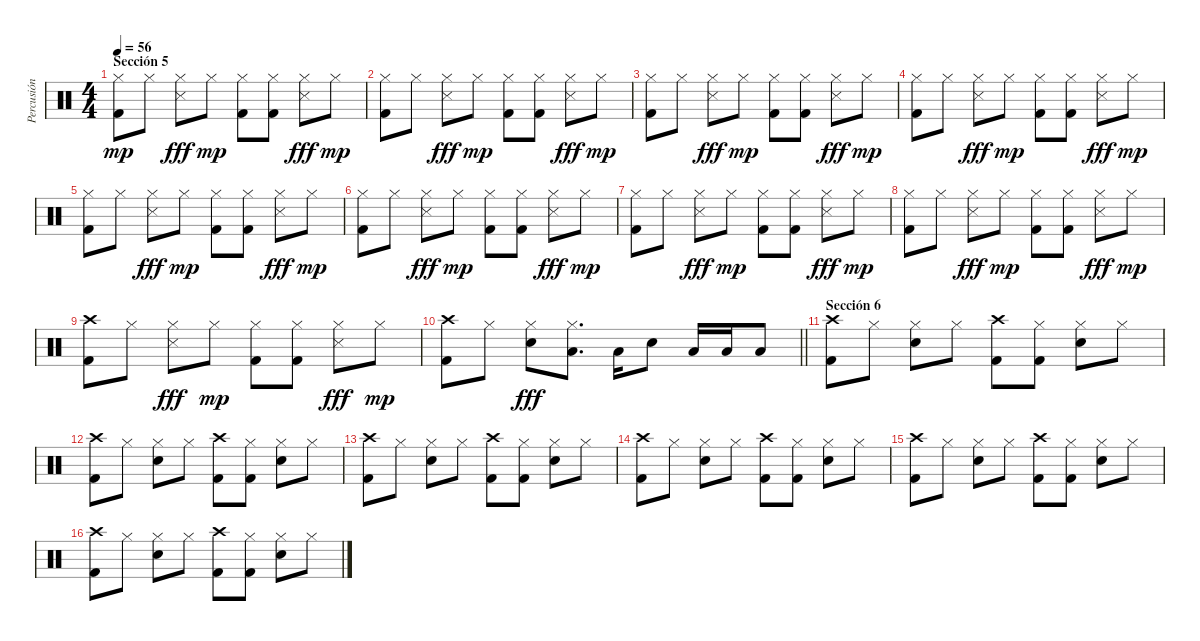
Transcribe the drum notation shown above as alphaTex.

\track ("Percusión" "Percusión") {instrument percussion}
\staff {score}
\articulation defaults
\ts (4 4)
\section ("" "Sección 5")
\tempo 56
\clef neutral
\ks c
("Hi-Hat (closed)" "Kick (hit) 2").8{dy mp} "Hi-Hat (closed)".8 ("Hi-Hat (closed)" "Metronome (hit)").8{dy fff} "Hi-Hat (closed)".8{dy mp} ("Hi-Hat (closed)" "Kick (hit) 2").8 ("Hi-Hat (closed)" "Kick (hit) 2").8 ("Hi-Hat (closed)" "Metronome (hit)").8{dy fff} "Hi-Hat (closed)".8{dy mp} |
("Hi-Hat (closed)" "Kick (hit) 2").8 "Hi-Hat (closed)".8 ("Hi-Hat (closed)" "Metronome (hit)").8{dy fff} "Hi-Hat (closed)".8{dy mp} ("Hi-Hat (closed)" "Kick (hit) 2").8 ("Hi-Hat (closed)" "Kick (hit) 2").8 ("Hi-Hat (closed)" "Metronome (hit)").8{dy fff} "Hi-Hat (closed)".8{dy mp} |
("Hi-Hat (closed)" "Kick (hit) 2").8 "Hi-Hat (closed)".8 ("Hi-Hat (closed)" "Metronome (hit)").8{dy fff} "Hi-Hat (closed)".8{dy mp} ("Hi-Hat (closed)" "Kick (hit) 2").8 ("Hi-Hat (closed)" "Kick (hit) 2").8 ("Hi-Hat (closed)" "Metronome (hit)").8{dy fff} "Hi-Hat (closed)".8{dy mp} |
("Hi-Hat (closed)" "Kick (hit) 2").8 "Hi-Hat (closed)".8 ("Hi-Hat (closed)" "Metronome (hit)").8{dy fff} "Hi-Hat (closed)".8{dy mp} ("Hi-Hat (closed)" "Kick (hit) 2").8 ("Hi-Hat (closed)" "Kick (hit) 2").8 ("Hi-Hat (closed)" "Metronome (hit)").8{dy fff} "Hi-Hat (closed)".8{dy mp} |
("Hi-Hat (closed)" "Kick (hit) 2").8 "Hi-Hat (closed)".8 ("Hi-Hat (closed)" "Metronome (hit)").8{dy fff} "Hi-Hat (closed)".8{dy mp} ("Hi-Hat (closed)" "Kick (hit) 2").8 ("Hi-Hat (closed)" "Kick (hit) 2").8 ("Hi-Hat (closed)" "Metronome (hit)").8{dy fff} "Hi-Hat (closed)".8{dy mp} |
("Hi-Hat (closed)" "Kick (hit) 2").8 "Hi-Hat (closed)".8 ("Hi-Hat (closed)" "Metronome (hit)").8{dy fff} "Hi-Hat (closed)".8{dy mp} ("Hi-Hat (closed)" "Kick (hit) 2").8 ("Hi-Hat (closed)" "Kick (hit) 2").8 ("Hi-Hat (closed)" "Metronome (hit)").8{dy fff} "Hi-Hat (closed)".8{dy mp} |
("Hi-Hat (closed)" "Kick (hit) 2").8 "Hi-Hat (closed)".8 ("Hi-Hat (closed)" "Metronome (hit)").8{dy fff} "Hi-Hat (closed)".8{dy mp} ("Hi-Hat (closed)" "Kick (hit) 2").8 ("Hi-Hat (closed)" "Kick (hit) 2").8 ("Hi-Hat (closed)" "Metronome (hit)").8{dy fff} "Hi-Hat (closed)".8{dy mp} |
("Hi-Hat (closed)" "Kick (hit) 2").8 "Hi-Hat (closed)".8 ("Hi-Hat (closed)" "Metronome (hit)").8{dy fff} "Hi-Hat (closed)".8{dy mp} ("Hi-Hat (closed)" "Kick (hit) 2").8 ("Hi-Hat (closed)" "Kick (hit) 2").8 ("Hi-Hat (closed)" "Metronome (hit)").8{dy fff} "Hi-Hat (closed)".8{dy mp} |
("Crash high (hit)" "Kick (hit) 2").8 "Hi-Hat (closed)".8 ("Hi-Hat (closed)" "Metronome (hit)").8{dy fff} "Hi-Hat (closed)".8{dy mp} ("Hi-Hat (closed)" "Kick (hit) 2").8 ("Hi-Hat (closed)" "Kick (hit) 2").8 ("Hi-Hat (closed)" "Metronome (hit)").8{dy fff} "Hi-Hat (closed)".8{dy mp} |
\barLineRight lightlight
("Crash high (hit)" "Kick (hit) 2").8 "Hi-Hat (closed)".8 ("Hi-Hat (closed)" "Snare (hit) 2").8{dy fff} ("Hi-Hat (closed)" "Low Tom (hit)").8{d} "Low Tom (hit)".16 "Snare (hit) 2".8 "Low Tom (hit)".16 "Low Tom (hit)".16 "Low Tom (hit)".8 |
\section ("" "Sección 6")
("Crash high (hit)" "Kick (hit) 2").8 "Hi-Hat (closed)".8 ("Hi-Hat (closed)" "Snare (hit) 2").8 "Hi-Hat (closed)".8 ("Crash high (hit)" "Kick (hit) 2").8 ("Hi-Hat (closed)" "Kick (hit) 2").8 ("Hi-Hat (closed)" "Snare (hit) 2").8 "Hi-Hat (closed)".8 |
("Crash high (hit)" "Kick (hit) 2").8 "Hi-Hat (closed)".8 ("Hi-Hat (closed)" "Snare (hit) 2").8 "Hi-Hat (closed)".8 ("Crash high (hit)" "Kick (hit) 2").8 ("Hi-Hat (closed)" "Kick (hit) 2").8 ("Hi-Hat (closed)" "Snare (hit) 2").8 "Hi-Hat (closed)".8 |
("Crash high (hit)" "Kick (hit) 2").8 "Hi-Hat (closed)".8 ("Hi-Hat (closed)" "Snare (hit) 2").8 "Hi-Hat (closed)".8 ("Crash high (hit)" "Kick (hit) 2").8 ("Hi-Hat (closed)" "Kick (hit) 2").8 ("Hi-Hat (closed)" "Snare (hit) 2").8 "Hi-Hat (closed)".8 |
("Crash high (hit)" "Kick (hit) 2").8 "Hi-Hat (closed)".8 ("Hi-Hat (closed)" "Snare (hit) 2").8 "Hi-Hat (closed)".8 ("Crash high (hit)" "Kick (hit) 2").8 ("Hi-Hat (closed)" "Kick (hit) 2").8 ("Hi-Hat (closed)" "Snare (hit) 2").8 "Hi-Hat (closed)".8 |
("Crash high (hit)" "Kick (hit) 2").8 "Hi-Hat (closed)".8 ("Hi-Hat (closed)" "Snare (hit) 2").8 "Hi-Hat (closed)".8 ("Crash high (hit)" "Kick (hit) 2").8 ("Hi-Hat (closed)" "Kick (hit) 2").8 ("Hi-Hat (closed)" "Snare (hit) 2").8 "Hi-Hat (closed)".8 |
("Crash high (hit)" "Kick (hit) 2").8 "Hi-Hat (closed)".8 ("Hi-Hat (closed)" "Snare (hit) 2").8 "Hi-Hat (closed)".8 ("Crash high (hit)" "Kick (hit) 2").8 ("Hi-Hat (closed)" "Kick (hit) 2").8 ("Hi-Hat (closed)" "Snare (hit) 2").8 "Hi-Hat (closed)".8
